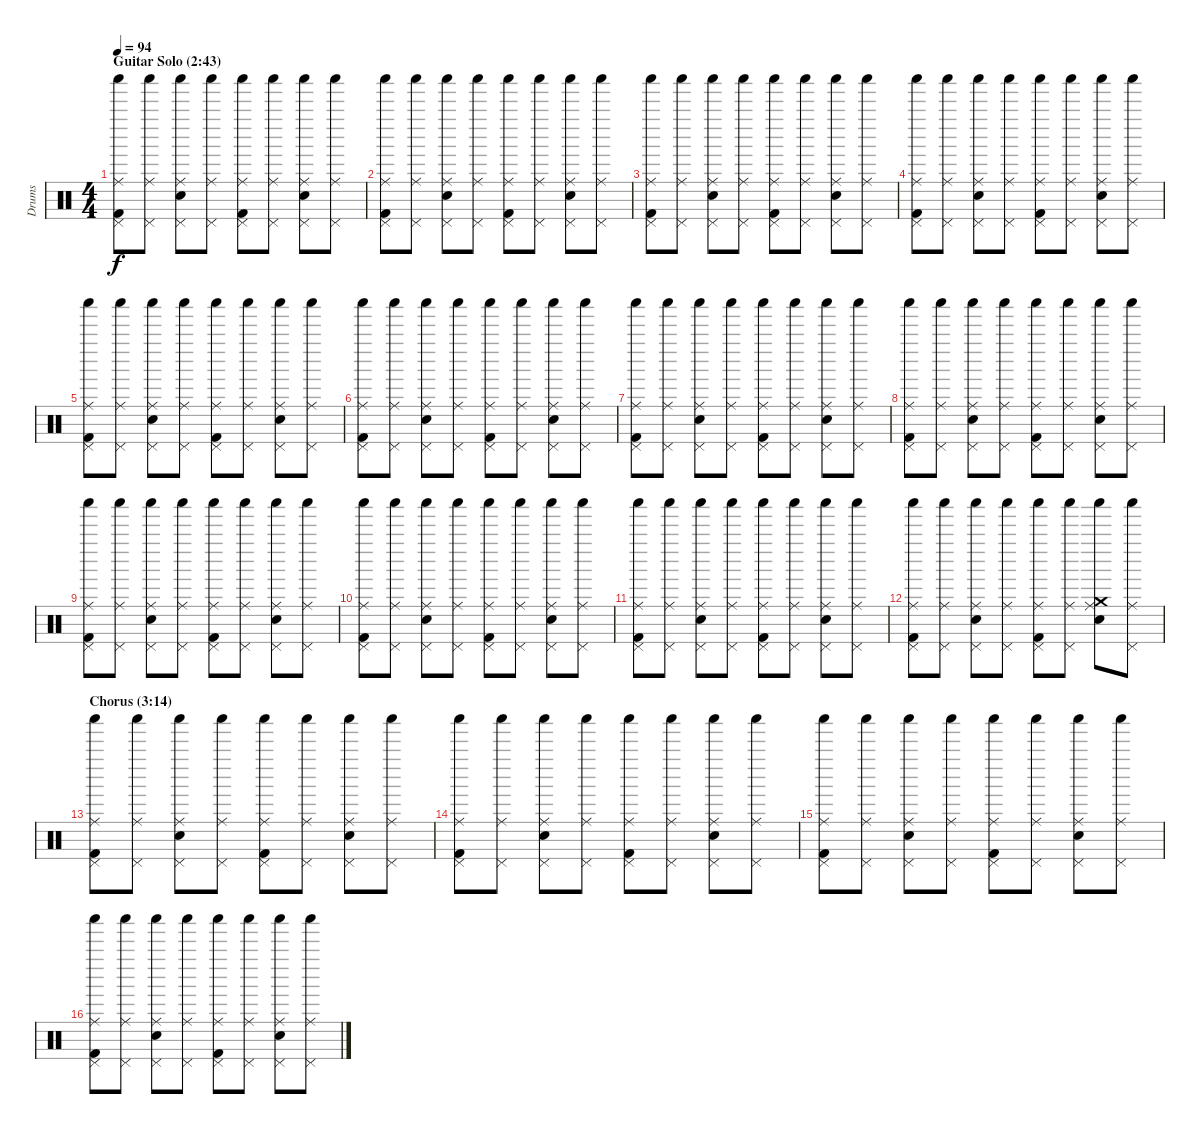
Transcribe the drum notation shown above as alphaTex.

\track ("Drums" "Drums") {instrument percussion}
\staff {score}
\articulation defaults
\ts (4 4)
\section ("" "Guitar Solo (2:43)")
\tempo 94
\clef neutral
\ks c
("Pedal Hi-Hat (hit)" "Ride (middle)" "Shaker (hit)" "Kick (hit) 2").8{dy f} ("Pedal Hi-Hat (hit)" "Ride (middle)" "Shaker (hit)").8 ("Pedal Hi-Hat (hit)" "Ride (middle)" "Shaker (hit)" "Snare (hit) 2").8 ("Pedal Hi-Hat (hit)" "Ride (middle)" "Shaker (hit)").8 ("Pedal Hi-Hat (hit)" "Ride (middle)" "Shaker (hit)" "Kick (hit) 2").8 ("Pedal Hi-Hat (hit)" "Ride (middle)" "Shaker (hit)").8 ("Pedal Hi-Hat (hit)" "Ride (middle)" "Shaker (hit)" "Snare (hit) 2").8 ("Pedal Hi-Hat (hit)" "Ride (middle)" "Shaker (hit)").8 |
("Pedal Hi-Hat (hit)" "Ride (middle)" "Shaker (hit)" "Kick (hit) 2").8 ("Pedal Hi-Hat (hit)" "Ride (middle)" "Shaker (hit)").8 ("Pedal Hi-Hat (hit)" "Ride (middle)" "Shaker (hit)" "Snare (hit) 2").8 ("Pedal Hi-Hat (hit)" "Ride (middle)" "Shaker (hit)").8 ("Pedal Hi-Hat (hit)" "Ride (middle)" "Shaker (hit)" "Kick (hit) 2").8 ("Pedal Hi-Hat (hit)" "Ride (middle)" "Shaker (hit)").8 ("Pedal Hi-Hat (hit)" "Ride (middle)" "Shaker (hit)" "Snare (hit) 2").8 ("Pedal Hi-Hat (hit)" "Ride (middle)" "Shaker (hit)").8 |
("Pedal Hi-Hat (hit)" "Ride (middle)" "Shaker (hit)" "Kick (hit) 2").8 ("Pedal Hi-Hat (hit)" "Ride (middle)" "Shaker (hit)").8 ("Pedal Hi-Hat (hit)" "Ride (middle)" "Shaker (hit)" "Snare (hit) 2").8 ("Pedal Hi-Hat (hit)" "Ride (middle)" "Shaker (hit)").8 ("Pedal Hi-Hat (hit)" "Ride (middle)" "Shaker (hit)" "Kick (hit) 2").8 ("Pedal Hi-Hat (hit)" "Ride (middle)" "Shaker (hit)").8 ("Pedal Hi-Hat (hit)" "Ride (middle)" "Shaker (hit)" "Snare (hit) 2").8 ("Pedal Hi-Hat (hit)" "Ride (middle)" "Shaker (hit)").8 |
("Pedal Hi-Hat (hit)" "Ride (middle)" "Shaker (hit)" "Kick (hit) 2").8 ("Pedal Hi-Hat (hit)" "Ride (middle)" "Shaker (hit)").8 ("Pedal Hi-Hat (hit)" "Ride (middle)" "Shaker (hit)" "Snare (hit) 2").8 ("Pedal Hi-Hat (hit)" "Ride (middle)" "Shaker (hit)").8 ("Pedal Hi-Hat (hit)" "Ride (middle)" "Shaker (hit)" "Kick (hit) 2").8 ("Pedal Hi-Hat (hit)" "Ride (middle)" "Shaker (hit)").8 ("Pedal Hi-Hat (hit)" "Ride (middle)" "Shaker (hit)" "Snare (hit) 2").8 ("Pedal Hi-Hat (hit)" "Ride (middle)" "Shaker (hit)").8 |
("Pedal Hi-Hat (hit)" "Ride (middle)" "Shaker (hit)" "Kick (hit) 2").8 ("Pedal Hi-Hat (hit)" "Ride (middle)" "Shaker (hit)").8 ("Pedal Hi-Hat (hit)" "Ride (middle)" "Shaker (hit)" "Snare (hit) 2").8 ("Pedal Hi-Hat (hit)" "Ride (middle)" "Shaker (hit)").8 ("Pedal Hi-Hat (hit)" "Ride (middle)" "Shaker (hit)" "Kick (hit) 2").8 ("Pedal Hi-Hat (hit)" "Ride (middle)" "Shaker (hit)").8 ("Pedal Hi-Hat (hit)" "Ride (middle)" "Shaker (hit)" "Snare (hit) 2").8 ("Pedal Hi-Hat (hit)" "Ride (middle)" "Shaker (hit)").8 |
("Pedal Hi-Hat (hit)" "Ride (middle)" "Shaker (hit)" "Kick (hit) 2").8 ("Pedal Hi-Hat (hit)" "Ride (middle)" "Shaker (hit)").8 ("Pedal Hi-Hat (hit)" "Ride (middle)" "Shaker (hit)" "Snare (hit) 2").8 ("Pedal Hi-Hat (hit)" "Ride (middle)" "Shaker (hit)").8 ("Pedal Hi-Hat (hit)" "Ride (middle)" "Shaker (hit)" "Kick (hit) 2").8 ("Pedal Hi-Hat (hit)" "Ride (middle)" "Shaker (hit)").8 ("Pedal Hi-Hat (hit)" "Ride (middle)" "Shaker (hit)" "Snare (hit) 2").8 ("Pedal Hi-Hat (hit)" "Ride (middle)" "Shaker (hit)").8 |
("Pedal Hi-Hat (hit)" "Ride (middle)" "Shaker (hit)" "Kick (hit) 2").8 ("Pedal Hi-Hat (hit)" "Ride (middle)" "Shaker (hit)").8 ("Pedal Hi-Hat (hit)" "Ride (middle)" "Shaker (hit)" "Snare (hit) 2").8 ("Pedal Hi-Hat (hit)" "Ride (middle)" "Shaker (hit)").8 ("Pedal Hi-Hat (hit)" "Ride (middle)" "Shaker (hit)" "Kick (hit) 2").8 ("Pedal Hi-Hat (hit)" "Ride (middle)" "Shaker (hit)").8 ("Pedal Hi-Hat (hit)" "Ride (middle)" "Shaker (hit)" "Snare (hit) 2").8 ("Pedal Hi-Hat (hit)" "Ride (middle)" "Shaker (hit)").8 |
("Pedal Hi-Hat (hit)" "Ride (middle)" "Shaker (hit)" "Kick (hit) 2").8 ("Pedal Hi-Hat (hit)" "Ride (middle)" "Shaker (hit)").8 ("Pedal Hi-Hat (hit)" "Ride (middle)" "Shaker (hit)" "Snare (hit) 2").8 ("Pedal Hi-Hat (hit)" "Ride (middle)" "Shaker (hit)").8 ("Pedal Hi-Hat (hit)" "Ride (middle)" "Shaker (hit)" "Kick (hit) 2").8 ("Pedal Hi-Hat (hit)" "Ride (middle)" "Shaker (hit)").8 ("Pedal Hi-Hat (hit)" "Ride (middle)" "Shaker (hit)" "Snare (hit) 2").8 ("Pedal Hi-Hat (hit)" "Ride (middle)" "Shaker (hit)").8 |
("Pedal Hi-Hat (hit)" "Ride (middle)" "Shaker (hit)" "Kick (hit) 2").8 ("Pedal Hi-Hat (hit)" "Ride (middle)" "Shaker (hit)").8 ("Pedal Hi-Hat (hit)" "Ride (middle)" "Shaker (hit)" "Snare (hit) 2").8 ("Pedal Hi-Hat (hit)" "Ride (middle)" "Shaker (hit)").8 ("Pedal Hi-Hat (hit)" "Ride (middle)" "Shaker (hit)" "Kick (hit) 2").8 ("Pedal Hi-Hat (hit)" "Ride (middle)" "Shaker (hit)").8 ("Pedal Hi-Hat (hit)" "Ride (middle)" "Shaker (hit)" "Snare (hit) 2").8 ("Pedal Hi-Hat (hit)" "Ride (middle)" "Shaker (hit)").8 |
("Pedal Hi-Hat (hit)" "Ride (middle)" "Shaker (hit)" "Kick (hit) 2").8 ("Pedal Hi-Hat (hit)" "Ride (middle)" "Shaker (hit)").8 ("Pedal Hi-Hat (hit)" "Ride (middle)" "Shaker (hit)" "Snare (hit) 2").8 ("Pedal Hi-Hat (hit)" "Ride (middle)" "Shaker (hit)").8 ("Pedal Hi-Hat (hit)" "Ride (middle)" "Shaker (hit)" "Kick (hit) 2").8 ("Pedal Hi-Hat (hit)" "Ride (middle)" "Shaker (hit)").8 ("Pedal Hi-Hat (hit)" "Ride (middle)" "Shaker (hit)" "Snare (hit) 2").8 ("Pedal Hi-Hat (hit)" "Ride (middle)" "Shaker (hit)").8 |
("Pedal Hi-Hat (hit)" "Ride (middle)" "Shaker (hit)" "Kick (hit) 2").8 ("Pedal Hi-Hat (hit)" "Ride (middle)" "Shaker (hit)").8 ("Pedal Hi-Hat (hit)" "Ride (middle)" "Shaker (hit)" "Snare (hit) 2").8 ("Pedal Hi-Hat (hit)" "Ride (middle)" "Shaker (hit)").8 ("Pedal Hi-Hat (hit)" "Ride (middle)" "Shaker (hit)" "Kick (hit) 2").8 ("Pedal Hi-Hat (hit)" "Ride (middle)" "Shaker (hit)").8 ("Pedal Hi-Hat (hit)" "Ride (middle)" "Shaker (hit)" "Snare (hit) 2").8 ("Pedal Hi-Hat (hit)" "Ride (middle)" "Shaker (hit)").8 |
("Pedal Hi-Hat (hit)" "Ride (middle)" "Shaker (hit)" "Kick (hit) 2").8 ("Pedal Hi-Hat (hit)" "Ride (middle)" "Shaker (hit)").8 ("Pedal Hi-Hat (hit)" "Ride (middle)" "Shaker (hit)" "Snare (hit) 2").8 ("Pedal Hi-Hat (hit)" "Ride (middle)" "Shaker (hit)").8 ("Pedal Hi-Hat (hit)" "Ride (middle)" "Shaker (hit)" "Kick (hit) 2").8 ("Pedal Hi-Hat (hit)" "Ride (middle)" "Shaker (hit)").8 ("Crash medium (hit)" "Ride (middle)" "Shaker (hit)" "Snare (hit) 2").8 ("Pedal Hi-Hat (hit)" "Ride (middle)" "Shaker (hit)").8 |
\section ("" "Chorus (3:14)")
("Pedal Hi-Hat (hit)" "Ride (middle)" "Shaker (hit)" "Kick (hit) 2").8 ("Pedal Hi-Hat (hit)" "Ride (middle)" "Shaker (hit)").8 ("Pedal Hi-Hat (hit)" "Ride (middle)" "Shaker (hit)" "Snare (hit) 2").8 ("Pedal Hi-Hat (hit)" "Ride (middle)" "Shaker (hit)").8 ("Pedal Hi-Hat (hit)" "Ride (middle)" "Shaker (hit)" "Kick (hit) 2").8 ("Pedal Hi-Hat (hit)" "Ride (middle)" "Shaker (hit)").8 ("Pedal Hi-Hat (hit)" "Ride (middle)" "Shaker (hit)" "Snare (hit) 2").8 ("Pedal Hi-Hat (hit)" "Ride (middle)" "Shaker (hit)").8 |
("Pedal Hi-Hat (hit)" "Ride (middle)" "Shaker (hit)" "Kick (hit) 2").8 ("Pedal Hi-Hat (hit)" "Ride (middle)" "Shaker (hit)").8 ("Pedal Hi-Hat (hit)" "Ride (middle)" "Shaker (hit)" "Snare (hit) 2").8 ("Pedal Hi-Hat (hit)" "Ride (middle)" "Shaker (hit)").8 ("Pedal Hi-Hat (hit)" "Ride (middle)" "Shaker (hit)" "Kick (hit) 2").8 ("Pedal Hi-Hat (hit)" "Ride (middle)" "Shaker (hit)").8 ("Pedal Hi-Hat (hit)" "Ride (middle)" "Shaker (hit)" "Snare (hit) 2").8 ("Pedal Hi-Hat (hit)" "Ride (middle)" "Shaker (hit)").8 |
("Pedal Hi-Hat (hit)" "Ride (middle)" "Shaker (hit)" "Kick (hit) 2").8 ("Pedal Hi-Hat (hit)" "Ride (middle)" "Shaker (hit)").8 ("Pedal Hi-Hat (hit)" "Ride (middle)" "Shaker (hit)" "Snare (hit) 2").8 ("Pedal Hi-Hat (hit)" "Ride (middle)" "Shaker (hit)").8 ("Pedal Hi-Hat (hit)" "Ride (middle)" "Shaker (hit)" "Kick (hit) 2").8 ("Pedal Hi-Hat (hit)" "Ride (middle)" "Shaker (hit)").8 ("Pedal Hi-Hat (hit)" "Ride (middle)" "Shaker (hit)" "Snare (hit) 2").8 ("Pedal Hi-Hat (hit)" "Ride (middle)" "Shaker (hit)").8 |
("Pedal Hi-Hat (hit)" "Ride (middle)" "Shaker (hit)" "Kick (hit) 2").8 ("Pedal Hi-Hat (hit)" "Ride (middle)" "Shaker (hit)").8 ("Pedal Hi-Hat (hit)" "Ride (middle)" "Shaker (hit)" "Snare (hit) 2").8 ("Pedal Hi-Hat (hit)" "Ride (middle)" "Shaker (hit)").8 ("Pedal Hi-Hat (hit)" "Ride (middle)" "Shaker (hit)" "Kick (hit) 2").8 ("Pedal Hi-Hat (hit)" "Ride (middle)" "Shaker (hit)").8 ("Pedal Hi-Hat (hit)" "Ride (middle)" "Shaker (hit)" "Snare (hit) 2").8 ("Pedal Hi-Hat (hit)" "Ride (middle)" "Shaker (hit)").8
